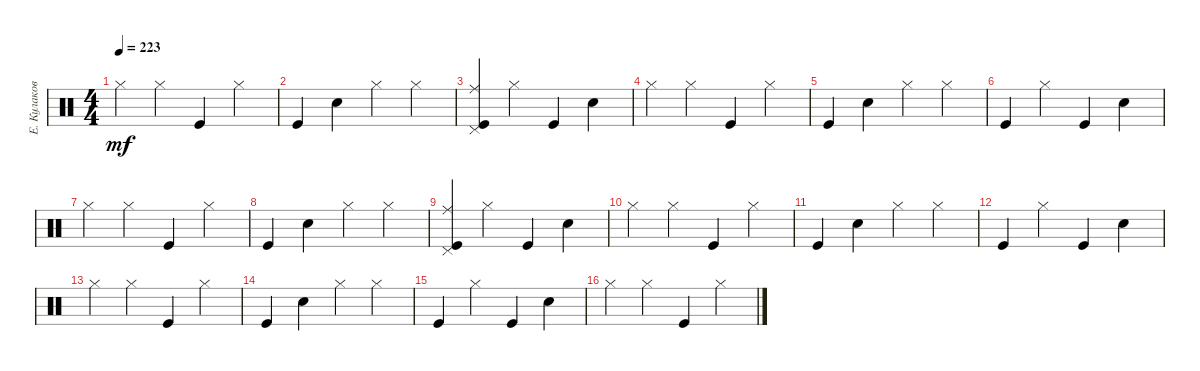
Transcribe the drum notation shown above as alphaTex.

\track ("Е. Кулаков" "Е. Кулаков") {instrument percussion}
\staff {score}
\articulation defaults
\ts (4 4)
\tempo 223
\clef neutral
\ks c "Hi-Hat (closed)".4{dy mf} "Hi-Hat (closed)".4 "Kick (hit)".4 "Hi-Hat (closed)".4
|
"Kick (hit)".4 "Snare (hit) 2".4 "Hi-Hat (closed)".4 "Hi-Hat (closed)".4 |
("Kick (hit)" "Ride (middle)" "Pedal Hi-Hat (hit)").4 "Hi-Hat (closed)".4 "Kick (hit)".4 "Snare (hit) 2".4 |
"Hi-Hat (closed)".4 "Hi-Hat (closed)".4 "Kick (hit)".4 "Hi-Hat (closed)".4 |
"Kick (hit)".4 "Snare (hit) 2".4 "Hi-Hat (closed)".4 "Hi-Hat (closed)".4 |
"Kick (hit)".4 "Hi-Hat (closed)".4 "Kick (hit)".4 "Snare (hit) 2".4 |
"Hi-Hat (closed)".4 "Hi-Hat (closed)".4 "Kick (hit)".4 "Hi-Hat (closed)".4 |
"Kick (hit)".4 "Snare (hit) 2".4 "Hi-Hat (closed)".4 "Hi-Hat (closed)".4 |
("Kick (hit)" "Ride (middle)" "Pedal Hi-Hat (hit)").4 "Hi-Hat (closed)".4 "Kick (hit)".4 "Snare (hit) 2".4 |
"Hi-Hat (closed)".4 "Hi-Hat (closed)".4 "Kick (hit)".4 "Hi-Hat (closed)".4 |
"Kick (hit)".4 "Snare (hit) 2".4 "Hi-Hat (closed)".4 "Hi-Hat (closed)".4 |
"Kick (hit)".4 "Hi-Hat (closed)".4 "Kick (hit)".4 "Snare (hit) 2".4 |
"Hi-Hat (closed)".4 "Hi-Hat (closed)".4 "Kick (hit)".4 "Hi-Hat (closed)".4 |
"Kick (hit)".4 "Snare (hit) 2".4 "Hi-Hat (closed)".4 "Hi-Hat (closed)".4 |
"Kick (hit)".4 "Hi-Hat (closed)".4 "Kick (hit)".4 "Snare (hit) 2".4 |
"Hi-Hat (closed)".4 "Hi-Hat (closed)".4 "Kick (hit)".4 "Hi-Hat (closed)".4
